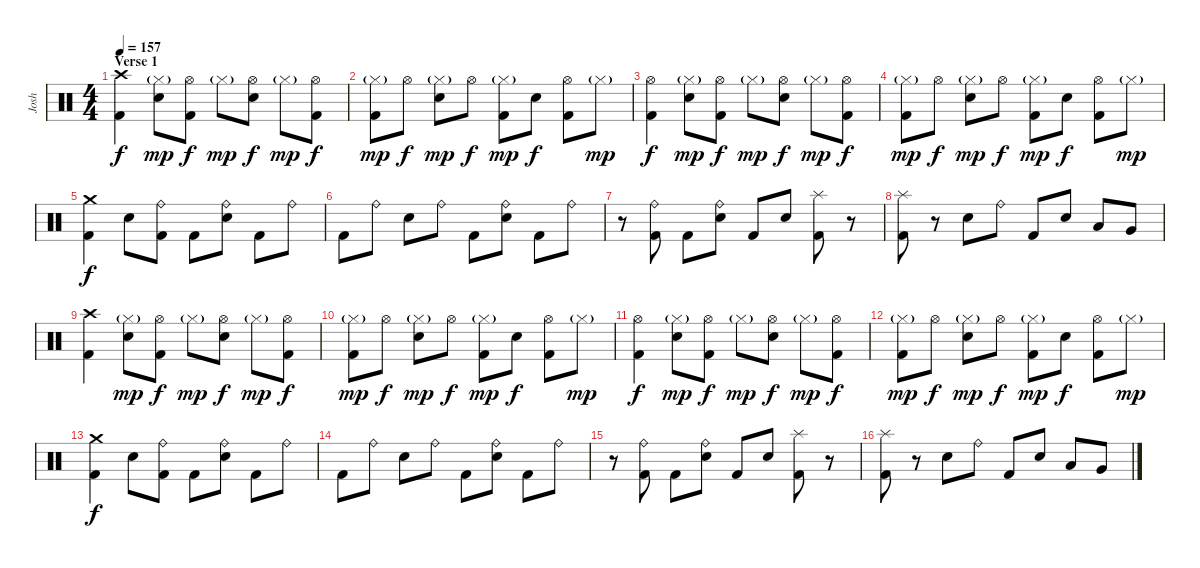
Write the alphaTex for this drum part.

\track ("Josh" "Josh") {instrument percussion}
\staff {score}
\articulation defaults
\ts (4 4)
\section ("" "Verse 1")
\tempo 157
\clef neutral
\ks c
("Crash high (hit)" "Kick (hit) 2").4{dy f} ("Hi-Hat (closed)"{g} "Electric Snare (hit)").8{dy mp} ("Hi-Hat (open)" "Kick (hit) 2").8{dy f} "Hi-Hat (closed)"{g}.8{dy mp} ("Hi-Hat (open)" "Electric Snare (hit)").8{dy f} "Hi-Hat (closed)"{g}.8{dy mp} ("Hi-Hat (open)" "Kick (hit) 2").8{dy f} |
("Hi-Hat (closed)"{g} "Kick (hit) 2").8{dy mp} "Hi-Hat (open)".8{dy f} ("Hi-Hat (closed)"{g} "Electric Snare (hit)").8{dy mp} "Hi-Hat (open)".8{dy f} ("Hi-Hat (closed)"{g} "Kick (hit) 2").8{dy mp} "Electric Snare (hit)".8{dy f} ("Hi-Hat (open)" "Kick (hit) 2").8 "Hi-Hat (closed)"{g}.8{dy mp} |
("Hi-Hat (open)" "Kick (hit) 2").4{dy f} ("Hi-Hat (closed)"{g} "Electric Snare (hit)").8{dy mp} ("Hi-Hat (open)" "Kick (hit) 2").8{dy f} "Hi-Hat (closed)"{g}.8{dy mp} ("Hi-Hat (open)" "Electric Snare (hit)").8{dy f} "Hi-Hat (closed)"{g}.8{dy mp} ("Hi-Hat (open)" "Kick (hit) 2").8{dy f} |
("Hi-Hat (closed)"{g} "Kick (hit) 2").8{dy mp} "Hi-Hat (open)".8{dy f} ("Hi-Hat (closed)"{g} "Electric Snare (hit)").8{dy mp} "Hi-Hat (open)".8{dy f} ("Hi-Hat (closed)"{g} "Kick (hit) 2").8{dy mp} "Electric Snare (hit)".8{dy f} ("Hi-Hat (open)" "Kick (hit) 2").8 "Hi-Hat (closed)"{g}.8{dy mp} |
("Crash medium (hit)" "Kick (hit) 2").4{dy f} "Electric Snare (hit)".8 ("Ride (bell)" "Kick (hit) 2").8 "Kick (hit) 2".8 ("Ride (bell)" "Electric Snare (hit)").8 "Kick (hit) 2".8 "Ride (bell)".8 |
"Kick (hit) 2".8 "Ride (bell)".8 "Electric Snare (hit)".8 "Ride (bell)".8 "Kick (hit) 2".8 ("Ride (bell)" "Electric Snare (hit)").8 "Kick (hit) 2".8 "Ride (bell)".8 |
r.8 ("Ride (bell)" "Kick (hit) 2").8 "Kick (hit) 2".8 ("Ride (bell)" "Electric Snare (hit)").8 "Kick (hit) 2".8 "Electric Snare (hit)".8 ("Splash (hit)" "Kick (hit) 2").8 r.8 |
("Splash (hit)" "Kick (hit) 2").8 r.8 "Electric Snare (hit)".8 "Ride (bell)".8 "Kick (hit) 2".8 "Electric Snare (hit)".8 "Low Tom (hit)".8 "Very Low Tom (hit)".8 |
("Crash high (hit)" "Kick (hit) 2").4 ("Hi-Hat (closed)"{g} "Electric Snare (hit)").8{dy mp} ("Hi-Hat (open)" "Kick (hit) 2").8{dy f} "Hi-Hat (closed)"{g}.8{dy mp} ("Hi-Hat (open)" "Electric Snare (hit)").8{dy f} "Hi-Hat (closed)"{g}.8{dy mp} ("Hi-Hat (open)" "Kick (hit) 2").8{dy f} |
("Hi-Hat (closed)"{g} "Kick (hit) 2").8{dy mp} "Hi-Hat (open)".8{dy f} ("Hi-Hat (closed)"{g} "Electric Snare (hit)").8{dy mp} "Hi-Hat (open)".8{dy f} ("Hi-Hat (closed)"{g} "Kick (hit) 2").8{dy mp} "Electric Snare (hit)".8{dy f} ("Hi-Hat (open)" "Kick (hit) 2").8 "Hi-Hat (closed)"{g}.8{dy mp} |
("Hi-Hat (open)" "Kick (hit) 2").4{dy f} ("Hi-Hat (closed)"{g} "Electric Snare (hit)").8{dy mp} ("Hi-Hat (open)" "Kick (hit) 2").8{dy f} "Hi-Hat (closed)"{g}.8{dy mp} ("Hi-Hat (open)" "Electric Snare (hit)").8{dy f} "Hi-Hat (closed)"{g}.8{dy mp} ("Hi-Hat (open)" "Kick (hit) 2").8{dy f} |
("Hi-Hat (closed)"{g} "Kick (hit) 2").8{dy mp} "Hi-Hat (open)".8{dy f} ("Hi-Hat (closed)"{g} "Electric Snare (hit)").8{dy mp} "Hi-Hat (open)".8{dy f} ("Hi-Hat (closed)"{g} "Kick (hit) 2").8{dy mp} "Electric Snare (hit)".8{dy f} ("Hi-Hat (open)" "Kick (hit) 2").8 "Hi-Hat (closed)"{g}.8{dy mp} |
("Crash medium (hit)" "Kick (hit) 2").4{dy f} "Electric Snare (hit)".8 ("Ride (bell)" "Kick (hit) 2").8 "Kick (hit) 2".8 ("Ride (bell)" "Electric Snare (hit)").8 "Kick (hit) 2".8 "Ride (bell)".8 |
"Kick (hit) 2".8 "Ride (bell)".8 "Electric Snare (hit)".8 "Ride (bell)".8 "Kick (hit) 2".8 ("Ride (bell)" "Electric Snare (hit)").8 "Kick (hit) 2".8 "Ride (bell)".8 |
r.8 ("Ride (bell)" "Kick (hit) 2").8 "Kick (hit) 2".8 ("Ride (bell)" "Electric Snare (hit)").8 "Kick (hit) 2".8 "Electric Snare (hit)".8 ("Splash (hit)" "Kick (hit) 2").8 r.8 |
("Splash (hit)" "Kick (hit) 2").8 r.8 "Electric Snare (hit)".8 "Ride (bell)".8 "Kick (hit) 2".8 "Electric Snare (hit)".8 "Low Tom (hit)".8 "Very Low Tom (hit)".8
